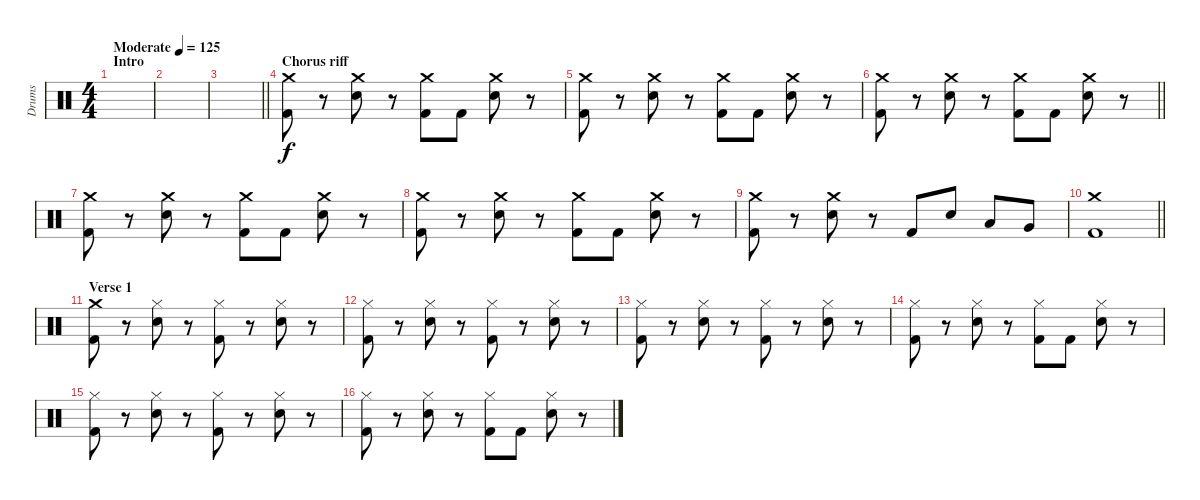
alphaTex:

\track ("Drums" "Drums") {instrument percussion}
\staff {score}
\articulation defaults
\ts (4 4)
\section ("" "Intro")
\tempo (125 "Moderate")
\clef neutral
\ks c
|
|
\barLineRight lightlight
|
\section ("" "Chorus riff")
("Crash medium (hit)" "Kick (hit) 2").8 r.8 ("Crash medium (hit)" "Electric Snare (hit)").8 r.8 ("Crash medium (hit)" "Kick (hit) 2").8 "Kick (hit) 2".8 ("Crash medium (hit)" "Electric Snare (hit)").8 r.8 |
("Crash medium (hit)" "Kick (hit) 2").8 r.8 ("Crash medium (hit)" "Electric Snare (hit)").8 r.8 ("Crash medium (hit)" "Kick (hit) 2").8 "Kick (hit) 2".8 ("Crash medium (hit)" "Electric Snare (hit)").8 r.8 |
\barLineRight lightlight
("Crash medium (hit)" "Kick (hit) 2").8 r.8 ("Crash medium (hit)" "Electric Snare (hit)").8 r.8 ("Crash medium (hit)" "Kick (hit) 2").8 "Kick (hit) 2".8 ("Crash medium (hit)" "Electric Snare (hit)").8 r.8 |
("Crash medium (hit)" "Kick (hit) 2").8 r.8 ("Crash medium (hit)" "Electric Snare (hit)").8 r.8 ("Crash medium (hit)" "Kick (hit) 2").8 "Kick (hit) 2".8 ("Crash medium (hit)" "Electric Snare (hit)").8 r.8 |
("Crash medium (hit)" "Kick (hit) 2").8 r.8 ("Crash medium (hit)" "Electric Snare (hit)").8 r.8 ("Crash medium (hit)" "Kick (hit) 2").8 "Kick (hit) 2".8 ("Crash medium (hit)" "Electric Snare (hit)").8 r.8 |
("Crash medium (hit)" "Kick (hit) 2").8 r.8 ("Crash medium (hit)" "Electric Snare (hit)").8 r.8 "Kick (hit) 2".8 "Electric Snare (hit)".8 "Low Tom (hit)".8 "Very Low Tom (hit)".8 |
\barLineRight lightlight
("Crash medium (hit)" "Kick (hit) 2").1 |
\section ("" "Verse 1")
("Crash medium (hit)" "Kick (hit) 2").8 r.8 ("Hi-Hat (closed)" "Electric Snare (hit)").8 r.8 ("Hi-Hat (closed)" "Kick (hit) 2").8 r.8 ("Hi-Hat (closed)" "Electric Snare (hit)").8 r.8 |
("Hi-Hat (closed)" "Kick (hit) 2").8 r.8 ("Hi-Hat (closed)" "Electric Snare (hit)").8 r.8 ("Hi-Hat (closed)" "Kick (hit) 2").8 r.8 ("Hi-Hat (closed)" "Electric Snare (hit)").8 r.8 |
("Hi-Hat (closed)" "Kick (hit) 2").8 r.8 ("Hi-Hat (closed)" "Electric Snare (hit)").8 r.8 ("Hi-Hat (closed)" "Kick (hit) 2").8 r.8 ("Hi-Hat (closed)" "Electric Snare (hit)").8 r.8 |
("Hi-Hat (closed)" "Kick (hit) 2").8 r.8 ("Hi-Hat (closed)" "Electric Snare (hit)").8 r.8 ("Hi-Hat (closed)" "Kick (hit) 2").8 "Kick (hit) 2".8 ("Hi-Hat (closed)" "Electric Snare (hit)").8 r.8 |
("Hi-Hat (closed)" "Kick (hit) 2").8 r.8 ("Hi-Hat (closed)" "Electric Snare (hit)").8 r.8 ("Hi-Hat (closed)" "Kick (hit) 2").8 r.8 ("Hi-Hat (closed)" "Electric Snare (hit)").8 r.8 |
("Hi-Hat (closed)" "Kick (hit) 2").8 r.8 ("Hi-Hat (closed)" "Electric Snare (hit)").8 r.8 ("Hi-Hat (closed)" "Kick (hit) 2").8 "Kick (hit) 2".8 ("Hi-Hat (closed)" "Electric Snare (hit)").8 r.8
